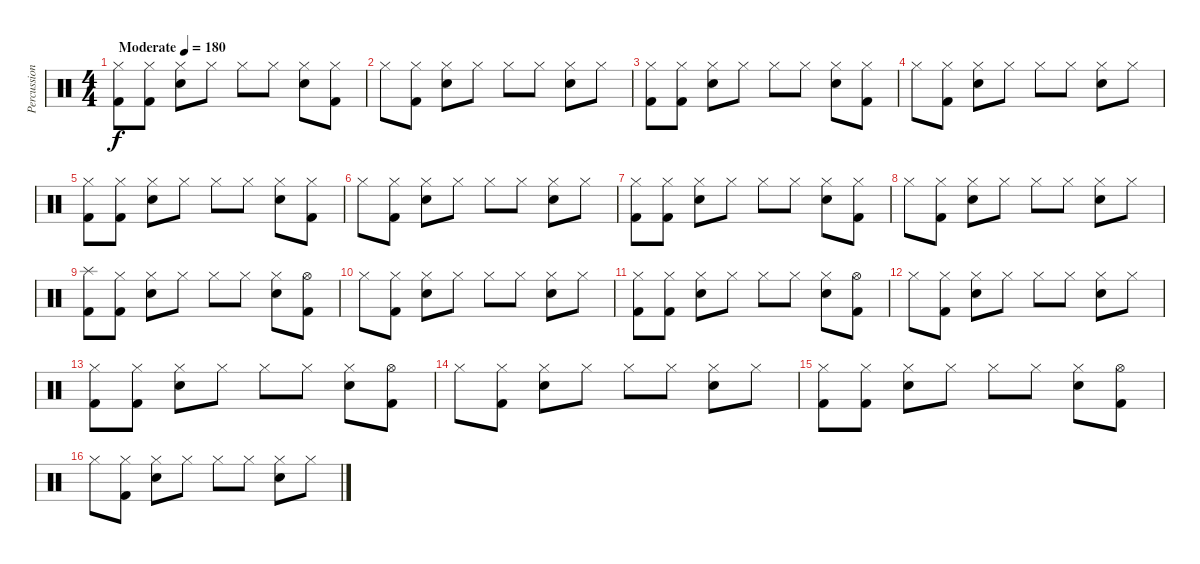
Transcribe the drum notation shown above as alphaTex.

\track ("Percussion" "Percussion") {instrument percussion}
\staff {score}
\articulation defaults
\ts (4 4)
\tempo (180 "Moderate")
\clef neutral
\ks c
("Hi-Hat (closed)" "Kick (hit) 2").8{dy f} ("Hi-Hat (closed)" "Kick (hit) 2").8 ("Hi-Hat (closed)" "Snare (hit) 2").8 "Hi-Hat (closed)".8 "Hi-Hat (closed)".8 "Hi-Hat (closed)".8 ("Hi-Hat (closed)" "Snare (hit) 2").8 ("Hi-Hat (closed)" "Kick (hit) 2").8 |
"Hi-Hat (closed)".8 ("Hi-Hat (closed)" "Kick (hit) 2").8 ("Hi-Hat (closed)" "Snare (hit) 2").8 "Hi-Hat (closed)".8 "Hi-Hat (closed)".8 "Hi-Hat (closed)".8 ("Hi-Hat (closed)" "Snare (hit) 2").8 "Hi-Hat (closed)".8 |
("Hi-Hat (closed)" "Kick (hit) 2").8 ("Hi-Hat (closed)" "Kick (hit) 2").8 ("Hi-Hat (closed)" "Snare (hit) 2").8 "Hi-Hat (closed)".8 "Hi-Hat (closed)".8 "Hi-Hat (closed)".8 ("Hi-Hat (closed)" "Snare (hit) 2").8 ("Hi-Hat (closed)" "Kick (hit) 2").8 |
"Hi-Hat (closed)".8 ("Hi-Hat (closed)" "Kick (hit) 2").8 ("Hi-Hat (closed)" "Snare (hit) 2").8 "Hi-Hat (closed)".8 "Hi-Hat (closed)".8 "Hi-Hat (closed)".8 ("Hi-Hat (closed)" "Snare (hit) 2").8 "Hi-Hat (closed)".8 |
("Hi-Hat (closed)" "Kick (hit) 2").8 ("Hi-Hat (closed)" "Kick (hit) 2").8 ("Hi-Hat (closed)" "Snare (hit) 2").8 "Hi-Hat (closed)".8 "Hi-Hat (closed)".8 "Hi-Hat (closed)".8 ("Hi-Hat (closed)" "Snare (hit) 2").8 ("Hi-Hat (closed)" "Kick (hit) 2").8 |
"Hi-Hat (closed)".8 ("Hi-Hat (closed)" "Kick (hit) 2").8 ("Hi-Hat (closed)" "Snare (hit) 2").8 "Hi-Hat (closed)".8 "Hi-Hat (closed)".8 "Hi-Hat (closed)".8 ("Hi-Hat (closed)" "Snare (hit) 2").8 "Hi-Hat (closed)".8 |
("Hi-Hat (closed)" "Kick (hit) 2").8 ("Hi-Hat (closed)" "Kick (hit) 2").8 ("Hi-Hat (closed)" "Snare (hit) 2").8 "Hi-Hat (closed)".8 "Hi-Hat (closed)".8 "Hi-Hat (closed)".8 ("Hi-Hat (closed)" "Snare (hit) 2").8 ("Hi-Hat (closed)" "Kick (hit) 2").8 |
"Hi-Hat (closed)".8 ("Hi-Hat (closed)" "Kick (hit) 2").8 ("Hi-Hat (closed)" "Snare (hit) 2").8 "Hi-Hat (closed)".8 "Hi-Hat (closed)".8 "Hi-Hat (closed)".8 ("Hi-Hat (closed)" "Snare (hit) 2").8 "Hi-Hat (closed)".8 |
("Splash (hit)" "Kick (hit) 2").8 ("Hi-Hat (closed)" "Kick (hit) 2").8 ("Hi-Hat (closed)" "Snare (hit) 2").8 "Hi-Hat (closed)".8 "Hi-Hat (closed)".8 "Hi-Hat (closed)".8 ("Hi-Hat (closed)" "Snare (hit) 2").8 ("Hi-Hat (open)" "Kick (hit) 2").8 |
"Hi-Hat (closed)".8 ("Hi-Hat (closed)" "Kick (hit) 2").8 ("Hi-Hat (closed)" "Snare (hit) 2").8 "Hi-Hat (closed)".8 "Hi-Hat (closed)".8 "Hi-Hat (closed)".8 ("Hi-Hat (closed)" "Snare (hit) 2").8 "Hi-Hat (closed)".8 |
("Hi-Hat (closed)" "Kick (hit) 2").8 ("Hi-Hat (closed)" "Kick (hit) 2").8 ("Hi-Hat (closed)" "Snare (hit) 2").8 "Hi-Hat (closed)".8 "Hi-Hat (closed)".8 "Hi-Hat (closed)".8 ("Hi-Hat (closed)" "Snare (hit) 2").8 ("Hi-Hat (open)" "Kick (hit) 2").8 |
"Hi-Hat (closed)".8 ("Hi-Hat (closed)" "Kick (hit) 2").8 ("Hi-Hat (closed)" "Snare (hit) 2").8 "Hi-Hat (closed)".8 "Hi-Hat (closed)".8 "Hi-Hat (closed)".8 ("Hi-Hat (closed)" "Snare (hit) 2").8 "Hi-Hat (closed)".8 |
("Hi-Hat (closed)" "Kick (hit) 2").8 ("Hi-Hat (closed)" "Kick (hit) 2").8 ("Hi-Hat (closed)" "Snare (hit) 2").8 "Hi-Hat (closed)".8 "Hi-Hat (closed)".8 "Hi-Hat (closed)".8 ("Hi-Hat (closed)" "Snare (hit) 2").8 ("Hi-Hat (open)" "Kick (hit) 2").8 |
"Hi-Hat (closed)".8 ("Hi-Hat (closed)" "Kick (hit) 2").8 ("Hi-Hat (closed)" "Snare (hit) 2").8 "Hi-Hat (closed)".8 "Hi-Hat (closed)".8 "Hi-Hat (closed)".8 ("Hi-Hat (closed)" "Snare (hit) 2").8 "Hi-Hat (closed)".8 |
("Hi-Hat (closed)" "Kick (hit) 2").8 ("Hi-Hat (closed)" "Kick (hit) 2").8 ("Hi-Hat (closed)" "Snare (hit) 2").8 "Hi-Hat (closed)".8 "Hi-Hat (closed)".8 "Hi-Hat (closed)".8 ("Hi-Hat (closed)" "Snare (hit) 2").8 ("Hi-Hat (open)" "Kick (hit) 2").8 |
"Hi-Hat (closed)".8 ("Hi-Hat (closed)" "Kick (hit) 2").8 ("Hi-Hat (closed)" "Snare (hit) 2").8 "Hi-Hat (closed)".8 "Hi-Hat (closed)".8 "Hi-Hat (closed)".8 ("Hi-Hat (closed)" "Snare (hit) 2").8 "Hi-Hat (closed)".8
